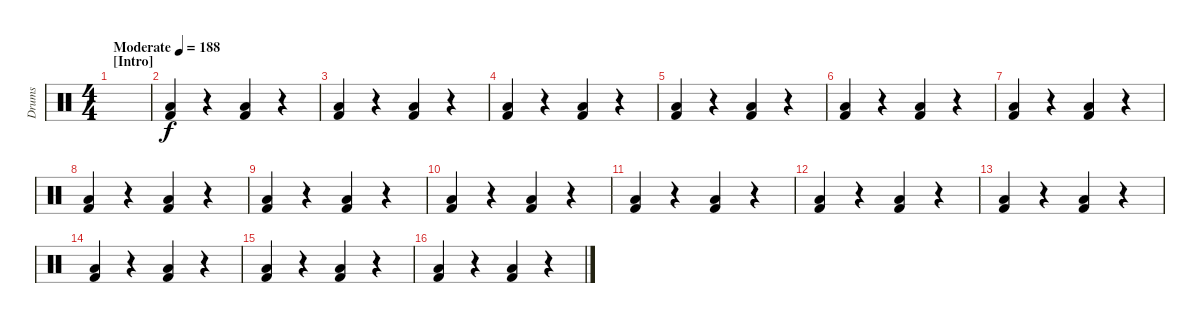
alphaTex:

\track ("Drums" "Drums") {instrument percussion}
\staff {score}
\articulation defaults
\ts (4 4)
\section ("" "[Intro]")
\tempo (188 "Moderate")
\clef neutral
\ks c
|
("Low Floor Tom (hit)" "Kick (hit) 2").4 r.4 ("Low Floor Tom (hit)" "Kick (hit) 2").4 r.4 |
("Low Floor Tom (hit)" "Kick (hit) 2").4 r.4 ("Low Floor Tom (hit)" "Kick (hit) 2").4 r.4 |
("Low Floor Tom (hit)" "Kick (hit) 2").4 r.4 ("Low Floor Tom (hit)" "Kick (hit) 2").4 r.4 |
("Low Floor Tom (hit)" "Kick (hit) 2").4 r.4 ("Low Floor Tom (hit)" "Kick (hit) 2").4 r.4 |
("Low Floor Tom (hit)" "Kick (hit) 2").4 r.4 ("Low Floor Tom (hit)" "Kick (hit) 2").4 r.4 |
("Low Floor Tom (hit)" "Kick (hit) 2").4 r.4 ("Low Floor Tom (hit)" "Kick (hit) 2").4 r.4 |
("Low Floor Tom (hit)" "Kick (hit) 2").4 r.4 ("Low Floor Tom (hit)" "Kick (hit) 2").4 r.4 |
("Low Floor Tom (hit)" "Kick (hit) 2").4 r.4 ("Low Floor Tom (hit)" "Kick (hit) 2").4 r.4 |
("Low Floor Tom (hit)" "Kick (hit) 2").4 r.4 ("Low Floor Tom (hit)" "Kick (hit) 2").4 r.4 |
("Low Floor Tom (hit)" "Kick (hit) 2").4 r.4 ("Low Floor Tom (hit)" "Kick (hit) 2").4 r.4 |
("Low Floor Tom (hit)" "Kick (hit) 2").4 r.4 ("Low Floor Tom (hit)" "Kick (hit) 2").4 r.4 |
("Low Floor Tom (hit)" "Kick (hit) 2").4 r.4 ("Low Floor Tom (hit)" "Kick (hit) 2").4 r.4 |
("Low Floor Tom (hit)" "Kick (hit) 2").4 r.4 ("Low Floor Tom (hit)" "Kick (hit) 2").4 r.4 |
("Low Floor Tom (hit)" "Kick (hit) 2").4 r.4 ("Low Floor Tom (hit)" "Kick (hit) 2").4 r.4 |
("Low Floor Tom (hit)" "Kick (hit) 2").4 r.4 ("Low Floor Tom (hit)" "Kick (hit) 2").4 r.4
